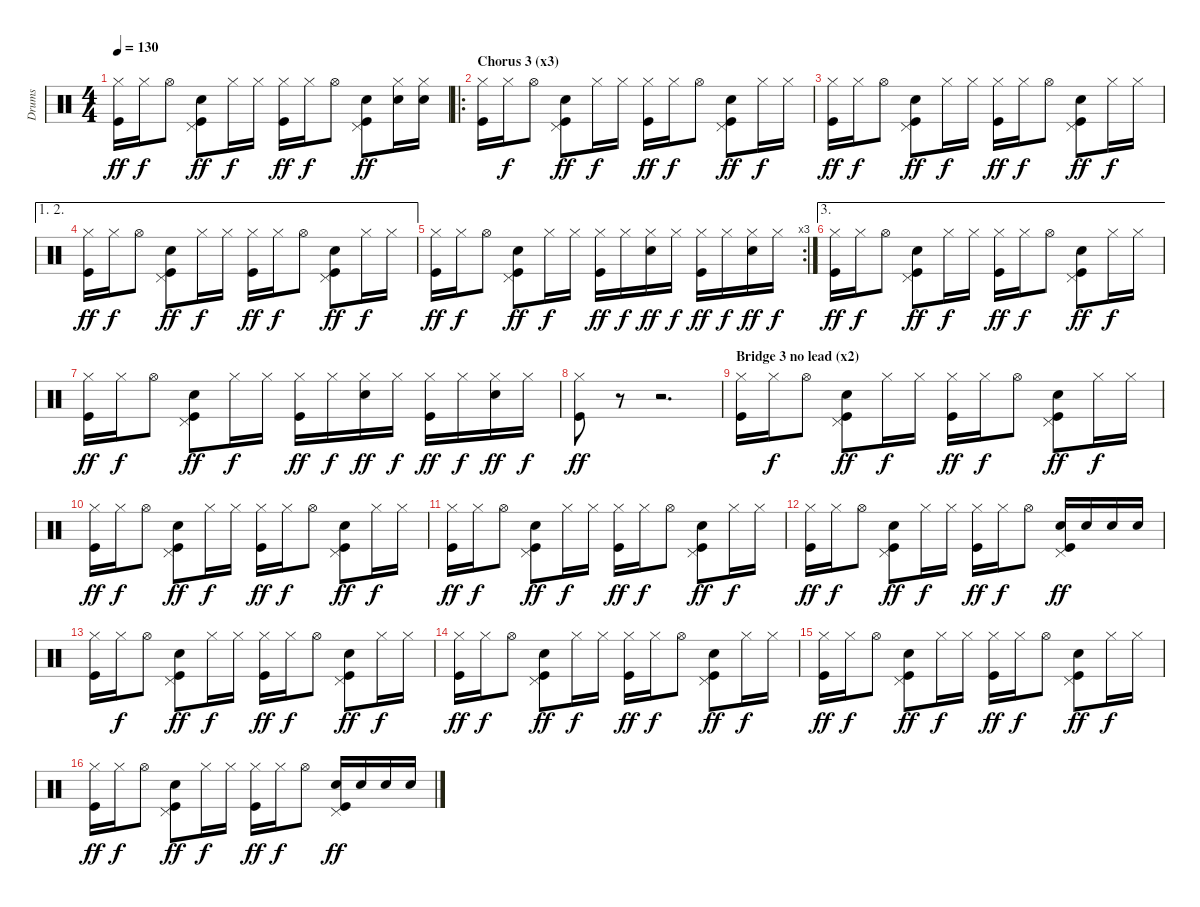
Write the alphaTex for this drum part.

\track ("Drums" "Drums") {instrument percussion}
\staff {score}
\articulation defaults
\ts (4 4)
\tempo 130
\clef neutral
\ks c
("Hi-Hat (closed)" "Kick (hit)").16{dy ff} "Hi-Hat (closed)".16{dy f} "Hi-Hat (open)".8 ("Pedal Hi-Hat (hit)" "Electric Snare (hit)" "Kick (hit)").8{dy ff} "Hi-Hat (closed)".16{dy f} "Hi-Hat (closed)".16 ("Hi-Hat (closed)" "Kick (hit)").16{dy ff} "Hi-Hat (closed)".16{dy f} "Hi-Hat (open)".8 ("Pedal Hi-Hat (hit)" "Electric Snare (hit)" "Kick (hit)").8{dy ff} ("Hi-Hat (closed)" "Electric Snare (hit)").16 ("Hi-Hat (closed)" "Electric Snare (hit)").16 |
\ro
\section ("" "Chorus 3 (x3)")
("Hi-Hat (closed)" "Kick (hit)").16 "Hi-Hat (closed)".16{dy f} "Hi-Hat (open)".8 ("Pedal Hi-Hat (hit)" "Electric Snare (hit)" "Kick (hit)").8{dy ff} "Hi-Hat (closed)".16{dy f} "Hi-Hat (closed)".16 ("Hi-Hat (closed)" "Kick (hit)").16{dy ff} "Hi-Hat (closed)".16{dy f} "Hi-Hat (open)".8 ("Pedal Hi-Hat (hit)" "Electric Snare (hit)" "Kick (hit)").8{dy ff} "Hi-Hat (closed)".16{dy f} "Hi-Hat (closed)".16 |
("Hi-Hat (closed)" "Kick (hit)").16{dy ff} "Hi-Hat (closed)".16{dy f} "Hi-Hat (open)".8 ("Pedal Hi-Hat (hit)" "Electric Snare (hit)" "Kick (hit)").8{dy ff} "Hi-Hat (closed)".16{dy f} "Hi-Hat (closed)".16 ("Hi-Hat (closed)" "Kick (hit)").16{dy ff} "Hi-Hat (closed)".16{dy f} "Hi-Hat (open)".8 ("Pedal Hi-Hat (hit)" "Electric Snare (hit)" "Kick (hit)").8{dy ff} "Hi-Hat (closed)".16{dy f} "Hi-Hat (closed)".16 |
\ae (1 2)
("Hi-Hat (closed)" "Kick (hit)").16{dy ff} "Hi-Hat (closed)".16{dy f} "Hi-Hat (open)".8 ("Pedal Hi-Hat (hit)" "Electric Snare (hit)" "Kick (hit)").8{dy ff} "Hi-Hat (closed)".16{dy f} "Hi-Hat (closed)".16 ("Hi-Hat (closed)" "Kick (hit)").16{dy ff} "Hi-Hat (closed)".16{dy f} "Hi-Hat (open)".8 ("Pedal Hi-Hat (hit)" "Electric Snare (hit)" "Kick (hit)").8{dy ff} "Hi-Hat (closed)".16{dy f} "Hi-Hat (closed)".16 |
\rc 3
("Hi-Hat (closed)" "Kick (hit)").16{dy ff} "Hi-Hat (closed)".16{dy f} "Hi-Hat (open)".8 ("Pedal Hi-Hat (hit)" "Electric Snare (hit)" "Kick (hit)").8{dy ff} "Hi-Hat (closed)".16{dy f} "Hi-Hat (closed)".16 ("Hi-Hat (closed)" "Kick (hit)").16{dy ff} "Hi-Hat (closed)".16{dy f} ("Hi-Hat (closed)" "Electric Snare (hit)").16{dy ff} "Hi-Hat (closed)".16{dy f} ("Hi-Hat (closed)" "Kick (hit)").16{dy ff} "Hi-Hat (closed)".16{dy f} ("Hi-Hat (closed)" "Electric Snare (hit)").16{dy ff} "Hi-Hat (closed)".16{dy f} |
\ae 3
("Hi-Hat (closed)" "Kick (hit)").16{dy ff} "Hi-Hat (closed)".16{dy f} "Hi-Hat (open)".8 ("Pedal Hi-Hat (hit)" "Electric Snare (hit)" "Kick (hit)").8{dy ff} "Hi-Hat (closed)".16{dy f} "Hi-Hat (closed)".16 ("Hi-Hat (closed)" "Kick (hit)").16{dy ff} "Hi-Hat (closed)".16{dy f} "Hi-Hat (open)".8 ("Pedal Hi-Hat (hit)" "Electric Snare (hit)" "Kick (hit)").8{dy ff} "Hi-Hat (closed)".16{dy f} "Hi-Hat (closed)".16 |
("Hi-Hat (closed)" "Kick (hit)").16{dy ff} "Hi-Hat (closed)".16{dy f} "Hi-Hat (open)".8 ("Pedal Hi-Hat (hit)" "Electric Snare (hit)" "Kick (hit)").8{dy ff} "Hi-Hat (closed)".16{dy f} "Hi-Hat (closed)".16 ("Hi-Hat (closed)" "Kick (hit)").16{dy ff} "Hi-Hat (closed)".16{dy f} ("Hi-Hat (closed)" "Electric Snare (hit)").16{dy ff} "Hi-Hat (closed)".16{dy f} ("Hi-Hat (closed)" "Kick (hit)").16{dy ff} "Hi-Hat (closed)".16{dy f} ("Hi-Hat (closed)" "Electric Snare (hit)").16{dy ff} "Hi-Hat (closed)".16{dy f} |
("Hi-Hat (closed)" "Kick (hit)").8{dy ff} r.8 r.2{d} |
\section ("" "Bridge 3 no lead (x2)")
("Hi-Hat (closed)" "Kick (hit)").16 "Hi-Hat (closed)".16{dy f} "Hi-Hat (open)".8 ("Pedal Hi-Hat (hit)" "Electric Snare (hit)" "Kick (hit)").8{dy ff} "Hi-Hat (closed)".16{dy f} "Hi-Hat (closed)".16 ("Hi-Hat (closed)" "Kick (hit)").16{dy ff} "Hi-Hat (closed)".16{dy f} "Hi-Hat (open)".8 ("Pedal Hi-Hat (hit)" "Electric Snare (hit)" "Kick (hit)").8{dy ff} "Hi-Hat (closed)".16{dy f} "Hi-Hat (closed)".16 |
("Hi-Hat (closed)" "Kick (hit)").16{dy ff} "Hi-Hat (closed)".16{dy f} "Hi-Hat (open)".8 ("Pedal Hi-Hat (hit)" "Electric Snare (hit)" "Kick (hit)").8{dy ff} "Hi-Hat (closed)".16{dy f} "Hi-Hat (closed)".16 ("Hi-Hat (closed)" "Kick (hit)").16{dy ff} "Hi-Hat (closed)".16{dy f} "Hi-Hat (open)".8 ("Pedal Hi-Hat (hit)" "Electric Snare (hit)" "Kick (hit)").8{dy ff} "Hi-Hat (closed)".16{dy f} "Hi-Hat (closed)".16 |
("Hi-Hat (closed)" "Kick (hit)").16{dy ff} "Hi-Hat (closed)".16{dy f} "Hi-Hat (open)".8 ("Pedal Hi-Hat (hit)" "Electric Snare (hit)" "Kick (hit)").8{dy ff} "Hi-Hat (closed)".16{dy f} "Hi-Hat (closed)".16 ("Hi-Hat (closed)" "Kick (hit)").16{dy ff} "Hi-Hat (closed)".16{dy f} "Hi-Hat (open)".8 ("Pedal Hi-Hat (hit)" "Electric Snare (hit)" "Kick (hit)").8{dy ff} "Hi-Hat (closed)".16{dy f} "Hi-Hat (closed)".16 |
("Hi-Hat (closed)" "Kick (hit)").16{dy ff} "Hi-Hat (closed)".16{dy f} "Hi-Hat (open)".8 ("Pedal Hi-Hat (hit)" "Electric Snare (hit)" "Kick (hit)").8{dy ff} "Hi-Hat (closed)".16{dy f} "Hi-Hat (closed)".16 ("Hi-Hat (closed)" "Kick (hit)").16{dy ff} "Hi-Hat (closed)".16{dy f} "Hi-Hat (open)".8 ("Pedal Hi-Hat (hit)" "Electric Snare (hit)" "Kick (hit)").16{dy ff} "Electric Snare (hit)".16 "Electric Snare (hit)".16 "Electric Snare (hit)".16 |
("Hi-Hat (closed)" "Kick (hit)").16 "Hi-Hat (closed)".16{dy f} "Hi-Hat (open)".8 ("Pedal Hi-Hat (hit)" "Electric Snare (hit)" "Kick (hit)").8{dy ff} "Hi-Hat (closed)".16{dy f} "Hi-Hat (closed)".16 ("Hi-Hat (closed)" "Kick (hit)").16{dy ff} "Hi-Hat (closed)".16{dy f} "Hi-Hat (open)".8 ("Pedal Hi-Hat (hit)" "Electric Snare (hit)" "Kick (hit)").8{dy ff} "Hi-Hat (closed)".16{dy f} "Hi-Hat (closed)".16 |
("Hi-Hat (closed)" "Kick (hit)").16{dy ff} "Hi-Hat (closed)".16{dy f} "Hi-Hat (open)".8 ("Pedal Hi-Hat (hit)" "Electric Snare (hit)" "Kick (hit)").8{dy ff} "Hi-Hat (closed)".16{dy f} "Hi-Hat (closed)".16 ("Hi-Hat (closed)" "Kick (hit)").16{dy ff} "Hi-Hat (closed)".16{dy f} "Hi-Hat (open)".8 ("Pedal Hi-Hat (hit)" "Electric Snare (hit)" "Kick (hit)").8{dy ff} "Hi-Hat (closed)".16{dy f} "Hi-Hat (closed)".16 |
("Hi-Hat (closed)" "Kick (hit)").16{dy ff} "Hi-Hat (closed)".16{dy f} "Hi-Hat (open)".8 ("Pedal Hi-Hat (hit)" "Electric Snare (hit)" "Kick (hit)").8{dy ff} "Hi-Hat (closed)".16{dy f} "Hi-Hat (closed)".16 ("Hi-Hat (closed)" "Kick (hit)").16{dy ff} "Hi-Hat (closed)".16{dy f} "Hi-Hat (open)".8 ("Pedal Hi-Hat (hit)" "Electric Snare (hit)" "Kick (hit)").8{dy ff} "Hi-Hat (closed)".16{dy f} "Hi-Hat (closed)".16 |
("Hi-Hat (closed)" "Kick (hit)").16{dy ff} "Hi-Hat (closed)".16{dy f} "Hi-Hat (open)".8 ("Pedal Hi-Hat (hit)" "Electric Snare (hit)" "Kick (hit)").8{dy ff} "Hi-Hat (closed)".16{dy f} "Hi-Hat (closed)".16 ("Hi-Hat (closed)" "Kick (hit)").16{dy ff} "Hi-Hat (closed)".16{dy f} "Hi-Hat (open)".8 ("Pedal Hi-Hat (hit)" "Electric Snare (hit)" "Kick (hit)").16{dy ff} "Electric Snare (hit)".16 "Electric Snare (hit)".16 "Electric Snare (hit)".16
